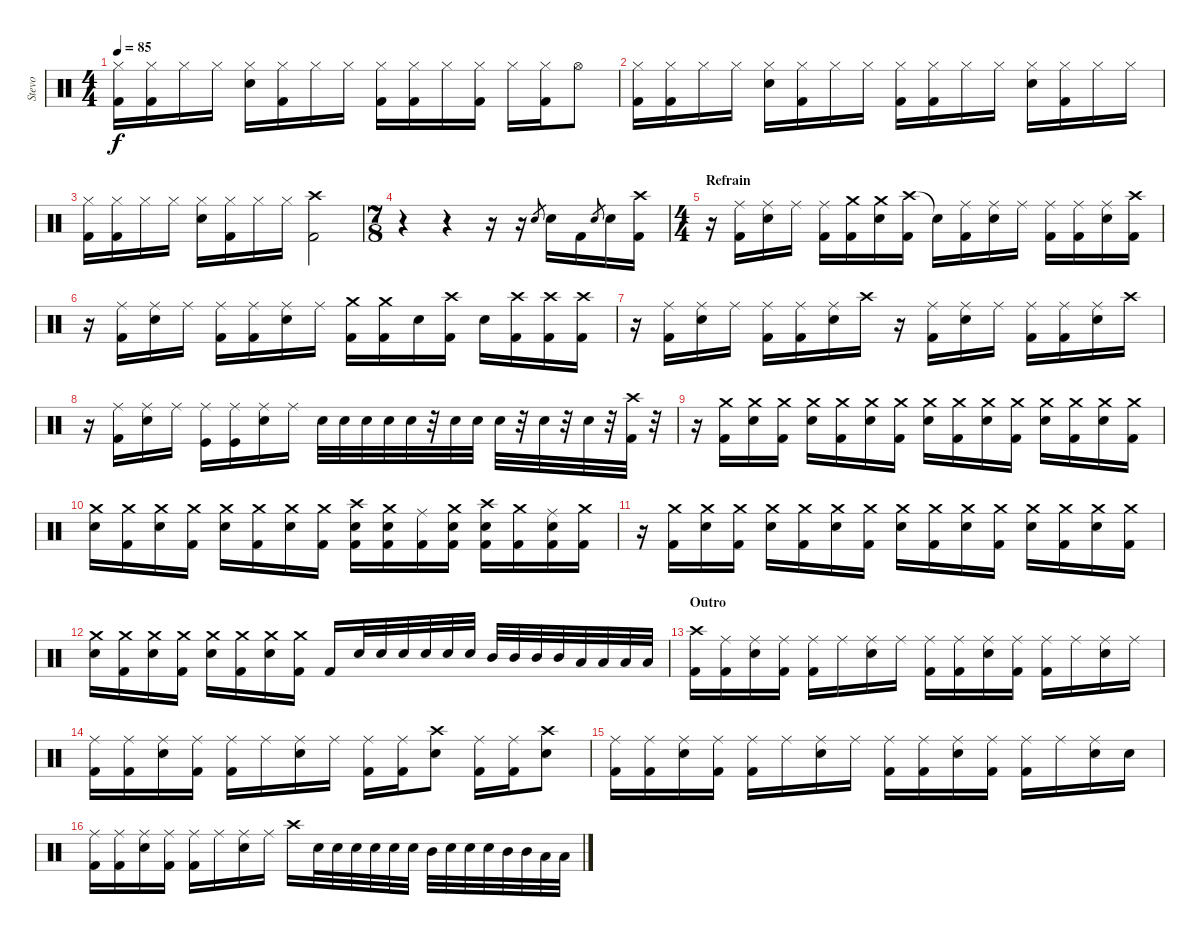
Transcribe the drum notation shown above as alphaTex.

\track ("Stevo" "Stevo") {instrument percussion}
\staff {score}
\articulation defaults
\ts (4 4)
\tempo 85
\clef neutral
\ks c
("Hi-Hat (closed)" "Kick (hit) 2").16{dy f} ("Hi-Hat (closed)" "Kick (hit) 2").16 "Hi-Hat (closed)".16 "Hi-Hat (closed)".16 ("Hi-Hat (closed)" "Electric Snare (hit)").16 ("Hi-Hat (closed)" "Kick (hit) 2").16 "Hi-Hat (closed)".16 "Hi-Hat (closed)".16 ("Hi-Hat (closed)" "Kick (hit) 2").16 ("Hi-Hat (closed)" "Kick (hit) 2").16 "Hi-Hat (closed)".16 ("Hi-Hat (closed)" "Kick (hit) 2").16 "Hi-Hat (closed)".16 ("Hi-Hat (closed)" "Kick (hit) 2").16 "Hi-Hat (open)".8 |
("Hi-Hat (closed)" "Kick (hit) 2").16 ("Hi-Hat (closed)" "Kick (hit) 2").16 "Hi-Hat (closed)".16 "Hi-Hat (closed)".16 ("Hi-Hat (closed)" "Electric Snare (hit)").16 ("Hi-Hat (closed)" "Kick (hit) 2").16 "Hi-Hat (closed)".16 "Hi-Hat (closed)".16 ("Hi-Hat (closed)" "Kick (hit) 2").16 ("Hi-Hat (closed)" "Kick (hit) 2").16 "Hi-Hat (closed)".16 "Hi-Hat (closed)".16 ("Hi-Hat (closed)" "Electric Snare (hit)").16 ("Hi-Hat (closed)" "Kick (hit) 2").16 "Hi-Hat (closed)".16 "Hi-Hat (closed)".16 |
("Hi-Hat (closed)" "Kick (hit) 2").16 ("Hi-Hat (closed)" "Kick (hit) 2").16 "Hi-Hat (closed)".16 "Hi-Hat (closed)".16 ("Hi-Hat (closed)" "Electric Snare (hit)").16 ("Hi-Hat (closed)" "Kick (hit) 2").16 "Hi-Hat (closed)".16 "Hi-Hat (closed)".16 ("Crash high (hit)" "Kick (hit) 2").2 |
\ts (7 8)
r.4 r.4 r.16 r.16 "Electric Snare (hit)".8{gr} "Electric Snare (hit)".16 "Kick (hit) 2".16 "Electric Snare (hit)".8{gr} "Electric Snare (hit)".16 ("Crash high (hit)" "Kick (hit) 2").16 |
\ts (4 4)
\section ("" "Refrain")
r.16 ("Ride (middle)" "Kick (hit) 2").16 ("Ride (middle)" "Electric Snare (hit)").16 "Ride (middle)".16 ("Ride (middle)" "Kick (hit) 2").16 ("Crash medium (hit)" "Kick (hit) 2").16 ("Crash medium (hit)" "Electric Snare (hit)").16 ("Crash high (hit)" "Kick (hit) 2").16 "Snare (hit)"{t}.16 ("Ride (middle)" "Kick (hit) 2").16 ("Ride (middle)" "Electric Snare (hit)").16 "Ride (middle)".16 ("Ride (middle)" "Kick (hit) 2").16 ("Ride (middle)" "Kick (hit) 2").16 ("Ride (middle)" "Electric Snare (hit)").16 ("Crash high (hit)" "Kick (hit) 2").16 |
r.16 ("Ride (middle)" "Kick (hit) 2").16 ("Ride (middle)" "Electric Snare (hit)").16 "Ride (middle)".16 ("Ride (middle)" "Kick (hit) 2").16 ("Ride (middle)" "Kick (hit) 2").16 ("Ride (middle)" "Electric Snare (hit)").16 "Ride (middle)".16 ("Crash medium (hit)" "Kick (hit) 2").16 ("Crash medium (hit)" "Kick (hit) 2").16 "Electric Snare (hit)".16 ("Crash high (hit)" "Kick (hit) 2").16 "Electric Snare (hit)".16 ("Crash high (hit)" "Kick (hit) 2").16 ("Crash high (hit)" "Kick (hit) 2").16 ("Crash high (hit)" "Kick (hit) 2").16 |
r.16 ("Ride (middle)" "Kick (hit) 2").16 ("Ride (middle)" "Electric Snare (hit)").16 "Ride (middle)".16 ("Ride (middle)" "Kick (hit) 2").16 ("Ride (middle)" "Kick (hit) 2").16 ("Ride (middle)" "Electric Snare (hit)").16 "Crash high (hit)".16 r.16 ("Ride (middle)" "Kick (hit) 2").16 ("Ride (middle)" "Electric Snare (hit)").16 "Ride (middle)".16 ("Ride (middle)" "Kick (hit) 2").16 ("Ride (middle)" "Kick (hit) 2").16 ("Ride (middle)" "Electric Snare (hit)").16 "Crash high (hit)".16 |
r.16 ("Ride (middle)" "Kick (hit) 2").16 ("Ride (middle)" "Electric Snare (hit)").16 "Ride (middle)".16 ("Ride (middle)" "Kick (hit)").16 ("Ride (middle)" "Kick (hit)").16 ("Ride (middle)" "Electric Snare (hit)").16 "Ride (middle)".16 "Electric Snare (hit)".32 "Electric Snare (hit)".32 "Electric Snare (hit)".32 "Electric Snare (hit)".32 "Electric Snare (hit)".32 r.32 "Electric Snare (hit)".32 "Electric Snare (hit)".32 "Electric Snare (hit)".32 r.32 "Electric Snare (hit)".32 r.32 "Electric Snare (hit)".32 r.32 ("Crash high (hit)" "Kick (hit) 2").32 r.32 |
r.16 ("Crash medium (hit)" "Kick (hit) 2").16 ("Crash medium (hit)" "Electric Snare (hit)").16 ("Crash medium (hit)" "Kick (hit) 2").16 ("Crash medium (hit)" "Electric Snare (hit)").16 ("Crash medium (hit)" "Kick (hit) 2").16 ("Crash medium (hit)" "Electric Snare (hit)").16 ("Crash medium (hit)" "Kick (hit) 2").16 ("Crash medium (hit)" "Electric Snare (hit)").16 ("Crash medium (hit)" "Kick (hit) 2").16 ("Crash medium (hit)" "Electric Snare (hit)").16 ("Crash medium (hit)" "Kick (hit) 2").16 ("Crash medium (hit)" "Electric Snare (hit)").16 ("Crash medium (hit)" "Kick (hit) 2").16 ("Crash medium (hit)" "Electric Snare (hit)").16 ("Crash medium (hit)" "Kick (hit) 2").16 |
("Crash medium (hit)" "Electric Snare (hit)").16 ("Crash medium (hit)" "Kick (hit) 2").16 ("Crash medium (hit)" "Electric Snare (hit)").16 ("Crash medium (hit)" "Kick (hit) 2").16 ("Crash medium (hit)" "Electric Snare (hit)").16 ("Crash medium (hit)" "Kick (hit) 2").16 ("Crash medium (hit)" "Electric Snare (hit)").16 ("Crash medium (hit)" "Kick (hit) 2").16 ("Crash high (hit)" "Electric Snare (hit)" "Kick (hit) 2").16 ("Crash medium (hit)" "Electric Snare (hit)" "Kick (hit) 2").16 ("Ride (middle)" "Kick (hit) 2").16 ("Crash medium (hit)" "Electric Snare (hit)" "Kick (hit) 2").16 ("Crash high (hit)" "Electric Snare (hit)" "Kick (hit) 2").16 ("Crash medium (hit)" "Kick (hit) 2").16 ("Ride (middle)" "Electric Snare (hit)" "Kick (hit) 2").16 ("Crash medium (hit)" "Kick (hit) 2").16 |
r.16 ("Crash medium (hit)" "Kick (hit) 2").16 ("Crash medium (hit)" "Electric Snare (hit)").16 ("Crash medium (hit)" "Kick (hit) 2").16 ("Crash medium (hit)" "Electric Snare (hit)").16 ("Crash medium (hit)" "Kick (hit) 2").16 ("Crash medium (hit)" "Electric Snare (hit)").16 ("Crash medium (hit)" "Kick (hit) 2").16 ("Crash medium (hit)" "Electric Snare (hit)").16 ("Crash medium (hit)" "Kick (hit) 2").16 ("Crash medium (hit)" "Electric Snare (hit)").16 ("Crash medium (hit)" "Kick (hit) 2").16 ("Crash medium (hit)" "Electric Snare (hit)").16 ("Crash medium (hit)" "Kick (hit) 2").16 ("Crash medium (hit)" "Electric Snare (hit)").16 ("Crash medium (hit)" "Kick (hit) 2").16 |
("Crash medium (hit)" "Electric Snare (hit)").16 ("Crash medium (hit)" "Kick (hit) 2").16 ("Crash medium (hit)" "Electric Snare (hit)").16 ("Crash medium (hit)" "Kick (hit) 2").16 ("Crash medium (hit)" "Electric Snare (hit)").16 ("Crash medium (hit)" "Kick (hit) 2").16 ("Crash medium (hit)" "Electric Snare (hit)").16 ("Crash medium (hit)" "Kick (hit) 2").16 "Kick (hit) 2".16 "Electric Snare (hit)".32 "Electric Snare (hit)".32 "Electric Snare (hit)".32 "Electric Snare (hit)".32 "Electric Snare (hit)".32 "Electric Snare (hit)".32 "Mid Tom (hit)".32 "Mid Tom (hit)".32 "Mid Tom (hit)".32 "Mid Tom (hit)".32 "Low Tom (hit)".32 "Low Tom (hit)".32 "Low Tom (hit)".32 "Low Tom (hit)".32 |
\section ("" "Outro")
("Crash high (hit)" "Kick (hit) 2").16 ("Ride (middle)" "Kick (hit) 2").16 ("Ride (middle)" "Electric Snare (hit)").16 ("Ride (middle)" "Kick (hit) 2").16 ("Ride (middle)" "Kick (hit) 2").16 "Ride (middle)".16 ("Ride (middle)" "Electric Snare (hit)").16 "Ride (middle)".16 ("Ride (middle)" "Kick (hit) 2").16 ("Ride (middle)" "Kick (hit) 2").16 ("Ride (middle)" "Electric Snare (hit)").16 ("Ride (middle)" "Kick (hit) 2").16 ("Ride (middle)" "Kick (hit) 2").16 "Ride (middle)".16 ("Ride (middle)" "Electric Snare (hit)").16 "Ride (middle)".16 |
("Ride (middle)" "Kick (hit) 2").16 ("Ride (middle)" "Kick (hit) 2").16 ("Ride (middle)" "Electric Snare (hit)").16 ("Ride (middle)" "Kick (hit) 2").16 ("Ride (middle)" "Kick (hit) 2").16 "Ride (middle)".16 ("Ride (middle)" "Electric Snare (hit)").16 "Ride (middle)".16 ("Ride (middle)" "Kick (hit) 2").16 ("Ride (middle)" "Kick (hit) 2").16 ("Crash high (hit)" "Electric Snare (hit)").8 ("Ride (middle)" "Kick (hit) 2").16 ("Ride (middle)" "Kick (hit) 2").16 ("Crash high (hit)" "Electric Snare (hit)").8 |
("Ride (middle)" "Kick (hit) 2").16 ("Ride (middle)" "Kick (hit) 2").16 ("Ride (middle)" "Electric Snare (hit)").16 ("Ride (middle)" "Kick (hit) 2").16 ("Ride (middle)" "Kick (hit) 2").16 "Ride (middle)".16 ("Ride (middle)" "Electric Snare (hit)").16 "Ride (middle)".16 ("Ride (middle)" "Kick (hit) 2").16 ("Ride (middle)" "Kick (hit) 2").16 ("Ride (middle)" "Electric Snare (hit)").16 ("Ride (middle)" "Kick (hit) 2").16 ("Ride (middle)" "Kick (hit) 2").16 "Ride (middle)".16 ("Ride (middle)" "Electric Snare (hit)").16 "Snare (hit)".16 |
("Ride (middle)" "Kick (hit) 2").16 ("Ride (middle)" "Kick (hit) 2").16 ("Ride (middle)" "Electric Snare (hit)").16 ("Ride (middle)" "Kick (hit) 2").16 ("Ride (middle)" "Kick (hit) 2").16 "Ride (middle)".16 ("Ride (middle)" "Electric Snare (hit)").16 "Ride (middle)".16 "Crash high (hit)".16 "Electric Snare (hit)".32 "Electric Snare (hit)".32 "Electric Snare (hit)".32 "Electric Snare (hit)".32 "Electric Snare (hit)".32 "Electric Snare (hit)".32 "Mid Tom (hit)".32 "Electric Snare (hit)".32 "Electric Snare (hit)".32 "Electric Snare (hit)".32 "Mid Tom (hit)".32 "Mid Tom (hit)".32 "Low Tom (hit)".32 "Low Tom (hit)".32
